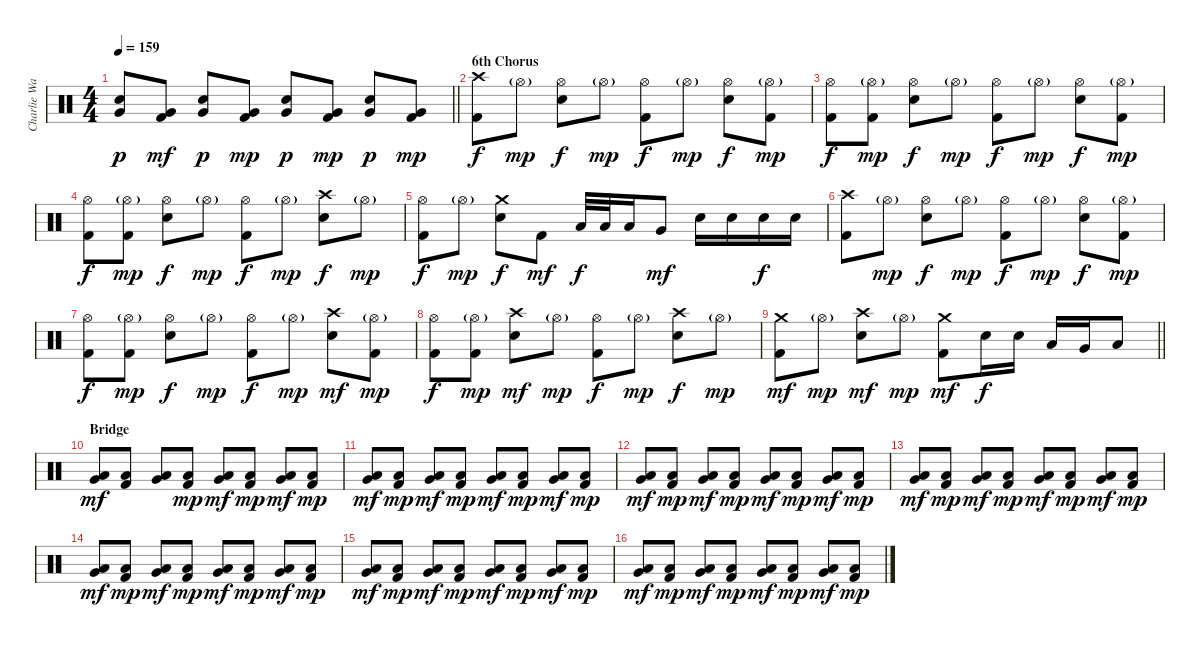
\track ("Charlie Watts (Drums)" "Charlie Wa") {instrument percussion}
\staff {score}
\articulation defaults
\ts (4 4)
\tempo 159
\clef neutral
\barLineRight lightlight
\ks c
("Very Low Tom (hit)" "Electric Snare (hit)").8{dy p} ("Very Low Tom (hit)" "Kick (hit) 2").8{dy mf} ("Very Low Tom (hit)" "Electric Snare (hit)").8{dy p} ("Very Low Tom (hit)" "Kick (hit) 2").8{dy mp} ("Very Low Tom (hit)" "Electric Snare (hit)").8{dy p} ("Very Low Tom (hit)" "Kick (hit) 2").8{dy mp} ("Very Low Tom (hit)" "Electric Snare (hit)").8{dy p} ("Very Low Tom (hit)" "Kick (hit) 2").8{dy mp} |
\section ("" "6th Chorus")
("Crash high (hit)" "Kick (hit) 2").8{dy f} "Hi-Hat (open)"{g}.8{dy mp} ("Hi-Hat (open)" "Electric Snare (hit)").8{dy f} "Hi-Hat (open)"{g}.8{dy mp} ("Hi-Hat (open)" "Kick (hit) 2").8{dy f} "Hi-Hat (open)"{g}.8{dy mp} ("Hi-Hat (open)" "Electric Snare (hit)").8{dy f} ("Hi-Hat (open)"{g} "Kick (hit) 2").8{dy mp} |
("Hi-Hat (open)" "Kick (hit) 2").8{dy f} ("Hi-Hat (open)"{g} "Kick (hit) 2").8{dy mp} ("Hi-Hat (open)" "Electric Snare (hit)").8{dy f} "Hi-Hat (open)"{g}.8{dy mp} ("Hi-Hat (open)" "Kick (hit) 2").8{dy f} "Hi-Hat (open)"{g}.8{dy mp} ("Hi-Hat (open)" "Electric Snare (hit)").8{dy f} ("Hi-Hat (open)"{g} "Kick (hit) 2").8{dy mp} |
("Hi-Hat (open)" "Kick (hit) 2").8{dy f} ("Hi-Hat (open)"{g} "Kick (hit) 2").8{dy mp} ("Hi-Hat (open)" "Electric Snare (hit)").8{dy f} "Hi-Hat (open)"{g}.8{dy mp} ("Hi-Hat (open)" "Kick (hit) 2").8{dy f} "Hi-Hat (open)"{g}.8{dy mp} ("Crash high (hit)" "Electric Snare (hit)").8{dy f} "Hi-Hat (open)"{g}.8{dy mp} |
("Hi-Hat (open)" "Kick (hit) 2").8{dy f} "Hi-Hat (open)"{g}.8{dy mp} ("Crash medium (hit)" "Electric Snare (hit)").8{dy f} "Kick (hit) 2".8{dy mf} "Low Tom (hit)".32{dy f} "Low Tom (hit)".32 "Low Tom (hit)".16 "Very Low Tom (hit)".8{dy mf} "Electric Snare (hit)".16 "Electric Snare (hit)".16 "Electric Snare (hit)".16{dy f} "Electric Snare (hit)".16 |
("Crash high (hit)" "Kick (hit) 2").8 "Hi-Hat (open)"{g}.8{dy mp} ("Hi-Hat (open)" "Electric Snare (hit)").8{dy f} "Hi-Hat (open)"{g}.8{dy mp} ("Hi-Hat (open)" "Kick (hit) 2").8{dy f} "Hi-Hat (open)"{g}.8{dy mp} ("Hi-Hat (open)" "Electric Snare (hit)").8{dy f} ("Hi-Hat (open)"{g} "Kick (hit) 2").8{dy mp} |
("Hi-Hat (open)" "Kick (hit) 2").8{dy f} ("Hi-Hat (open)"{g} "Kick (hit) 2").8{dy mp} ("Hi-Hat (open)" "Electric Snare (hit)").8{dy f} "Hi-Hat (open)"{g}.8{dy mp} ("Hi-Hat (open)" "Kick (hit) 2").8{dy f} "Hi-Hat (open)"{g}.8{dy mp} ("Crash high (hit)" "Electric Snare (hit)").8{dy mf} ("Hi-Hat (open)"{g} "Kick (hit) 2").8{dy mp} |
("Hi-Hat (open)" "Kick (hit) 2").8{dy f} ("Hi-Hat (open)"{g} "Kick (hit) 2").8{dy mp} ("Crash high (hit)" "Electric Snare (hit)").8{dy mf} "Hi-Hat (open)"{g}.8{dy mp} ("Hi-Hat (open)" "Kick (hit) 2").8{dy f} "Hi-Hat (open)"{g}.8{dy mp} ("Crash high (hit)" "Electric Snare (hit)").8{dy f} "Hi-Hat (open)"{g}.8{dy mp} |
\barLineRight lightlight
("Crash medium (hit)" "Kick (hit) 2").8{dy mf} "Hi-Hat (open)"{g}.8{dy mp} ("Crash high (hit)" "Electric Snare (hit)").8{dy mf} "Hi-Hat (open)"{g}.8{dy mp} ("Crash medium (hit)" "Kick (hit) 2").8{dy mf} "Electric Snare (hit)".16{dy f} "Electric Snare (hit)".16 "Low Tom (hit)".16 "Very Low Tom (hit)".16 "Low Floor Tom (hit)".8 |
\section ("" "Bridge")
("Very Low Tom (hit)" "Low Floor Tom (hit)").8{dy mf volume 15 balance 6} ("Low Floor Tom (hit)" "Kick (hit) 2").8 ("Very Low Tom (hit)" "Low Floor Tom (hit)").8 ("Low Floor Tom (hit)" "Kick (hit) 2").8{dy mp} ("Very Low Tom (hit)" "Low Floor Tom (hit)").8{dy mf} ("Low Floor Tom (hit)" "Kick (hit) 2").8{dy mp} ("Very Low Tom (hit)" "Low Floor Tom (hit)").8{dy mf} ("Low Floor Tom (hit)" "Kick (hit) 2").8{dy mp} |
("Very Low Tom (hit)" "Low Floor Tom (hit)").8{dy mf} ("Low Floor Tom (hit)" "Kick (hit) 2").8{dy mp} ("Very Low Tom (hit)" "Low Floor Tom (hit)").8{dy mf} ("Low Floor Tom (hit)" "Kick (hit) 2").8{dy mp} ("Very Low Tom (hit)" "Low Floor Tom (hit)").8{dy mf} ("Low Floor Tom (hit)" "Kick (hit) 2").8{dy mp} ("Very Low Tom (hit)" "Low Floor Tom (hit)").8{dy mf} ("Low Floor Tom (hit)" "Kick (hit) 2").8{dy mp} |
("Very Low Tom (hit)" "Low Floor Tom (hit)").8{dy mf} ("Low Floor Tom (hit)" "Kick (hit) 2").8{dy mp} ("Very Low Tom (hit)" "Low Floor Tom (hit)").8{dy mf} ("Low Floor Tom (hit)" "Kick (hit) 2").8{dy mp} ("Very Low Tom (hit)" "Low Floor Tom (hit)").8{dy mf} ("Low Floor Tom (hit)" "Kick (hit) 2").8{dy mp} ("Very Low Tom (hit)" "Low Floor Tom (hit)").8{dy mf} ("Low Floor Tom (hit)" "Kick (hit) 2").8{dy mp} |
("Very Low Tom (hit)" "Low Floor Tom (hit)").8{dy mf} ("Low Floor Tom (hit)" "Kick (hit) 2").8{dy mp} ("Very Low Tom (hit)" "Low Floor Tom (hit)").8{dy mf} ("Low Floor Tom (hit)" "Kick (hit) 2").8{dy mp} ("Very Low Tom (hit)" "Low Floor Tom (hit)").8{dy mf} ("Low Floor Tom (hit)" "Kick (hit) 2").8{dy mp} ("Very Low Tom (hit)" "Low Floor Tom (hit)").8{dy mf} ("Low Floor Tom (hit)" "Kick (hit) 2").8{dy mp} |
("Very Low Tom (hit)" "Low Floor Tom (hit)").8{dy mf} ("Low Floor Tom (hit)" "Kick (hit) 2").8{dy mp} ("Very Low Tom (hit)" "Low Floor Tom (hit)").8{dy mf} ("Low Floor Tom (hit)" "Kick (hit) 2").8{dy mp} ("Very Low Tom (hit)" "Low Floor Tom (hit)").8{dy mf} ("Low Floor Tom (hit)" "Kick (hit) 2").8{dy mp} ("Very Low Tom (hit)" "Low Floor Tom (hit)").8{dy mf} ("Low Floor Tom (hit)" "Kick (hit) 2").8{dy mp} |
("Very Low Tom (hit)" "Low Floor Tom (hit)").8{dy mf} ("Low Floor Tom (hit)" "Kick (hit) 2").8{dy mp} ("Very Low Tom (hit)" "Low Floor Tom (hit)").8{dy mf} ("Low Floor Tom (hit)" "Kick (hit) 2").8{dy mp} ("Very Low Tom (hit)" "Low Floor Tom (hit)").8{dy mf} ("Low Floor Tom (hit)" "Kick (hit) 2").8{dy mp} ("Very Low Tom (hit)" "Low Floor Tom (hit)").8{dy mf} ("Low Floor Tom (hit)" "Kick (hit) 2").8{dy mp} |
("Very Low Tom (hit)" "Low Floor Tom (hit)").8{dy mf} ("Low Floor Tom (hit)" "Kick (hit) 2").8{dy mp} ("Very Low Tom (hit)" "Low Floor Tom (hit)").8{dy mf} ("Low Floor Tom (hit)" "Kick (hit) 2").8{dy mp} ("Very Low Tom (hit)" "Low Floor Tom (hit)").8{dy mf} ("Low Floor Tom (hit)" "Kick (hit) 2").8{dy mp} ("Very Low Tom (hit)" "Low Floor Tom (hit)").8{dy mf} ("Low Floor Tom (hit)" "Kick (hit) 2").8{dy mp}
